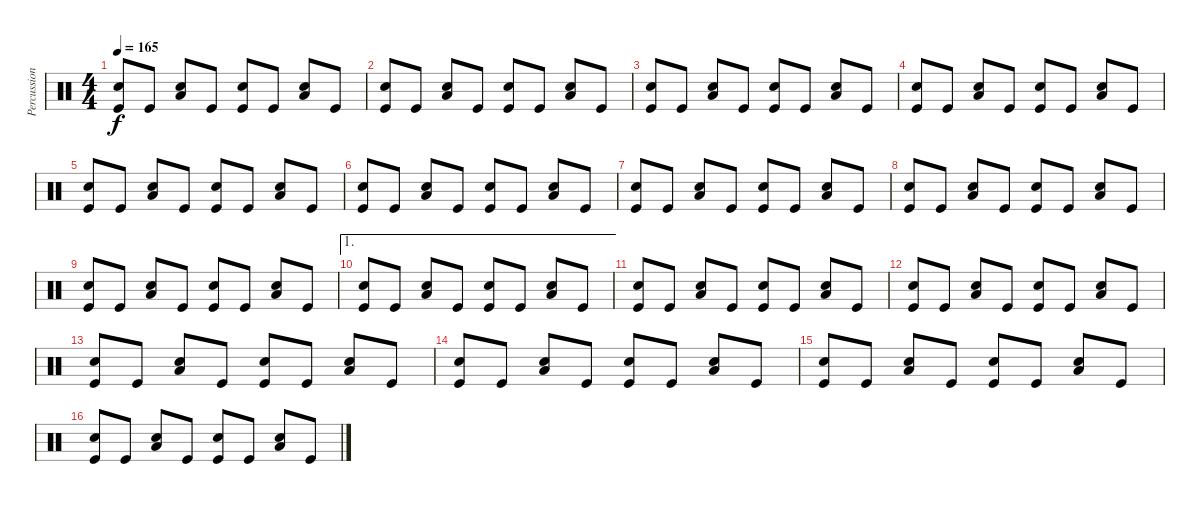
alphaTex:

\track ("Percussions" "Percussion") {instrument percussion}
\staff {score}
\articulation defaults
\ts (4 4)
\tempo 165
\clef neutral
\ks c
("Snare (hit) 2" "Kick (hit)").8{dy f} "Kick (hit)".8 ("Snare (hit) 2" "Low Floor Tom (hit)").8 "Kick (hit)".8 ("Snare (hit) 2" "Kick (hit)").8 "Kick (hit)".8 ("Snare (hit) 2" "Low Floor Tom (hit)").8 "Kick (hit)".8 |
("Snare (hit) 2" "Kick (hit)").8 "Kick (hit)".8 ("Snare (hit) 2" "Low Floor Tom (hit)").8 "Kick (hit)".8 ("Snare (hit) 2" "Kick (hit)").8 "Kick (hit)".8 ("Snare (hit) 2" "Low Floor Tom (hit)").8 "Kick (hit)".8 |
("Snare (hit) 2" "Kick (hit)").8 "Kick (hit)".8 ("Snare (hit) 2" "Low Floor Tom (hit)").8 "Kick (hit)".8 ("Snare (hit) 2" "Kick (hit)").8 "Kick (hit)".8 ("Snare (hit) 2" "Low Floor Tom (hit)").8 "Kick (hit)".8 |
("Snare (hit) 2" "Kick (hit)").8 "Kick (hit)".8 ("Snare (hit) 2" "Low Floor Tom (hit)").8 "Kick (hit)".8 ("Snare (hit) 2" "Kick (hit)").8 "Kick (hit)".8 ("Snare (hit) 2" "Low Floor Tom (hit)").8 "Kick (hit)".8 |
("Snare (hit) 2" "Kick (hit)").8 "Kick (hit)".8 ("Snare (hit) 2" "Low Floor Tom (hit)").8 "Kick (hit)".8 ("Snare (hit) 2" "Kick (hit)").8 "Kick (hit)".8 ("Snare (hit) 2" "Low Floor Tom (hit)").8 "Kick (hit)".8 |
("Snare (hit) 2" "Kick (hit)").8 "Kick (hit)".8 ("Snare (hit) 2" "Low Floor Tom (hit)").8 "Kick (hit)".8 ("Snare (hit) 2" "Kick (hit)").8 "Kick (hit)".8 ("Snare (hit) 2" "Low Floor Tom (hit)").8 "Kick (hit)".8 |
("Snare (hit) 2" "Kick (hit)").8 "Kick (hit)".8 ("Snare (hit) 2" "Low Floor Tom (hit)").8 "Kick (hit)".8 ("Snare (hit) 2" "Kick (hit)").8 "Kick (hit)".8 ("Snare (hit) 2" "Low Floor Tom (hit)").8 "Kick (hit)".8 |
("Snare (hit) 2" "Kick (hit)").8 "Kick (hit)".8 ("Snare (hit) 2" "Low Floor Tom (hit)").8 "Kick (hit)".8 ("Snare (hit) 2" "Kick (hit)").8 "Kick (hit)".8 ("Snare (hit) 2" "Low Floor Tom (hit)").8 "Kick (hit)".8 |
("Snare (hit) 2" "Kick (hit)").8 "Kick (hit)".8 ("Snare (hit) 2" "Low Floor Tom (hit)").8 "Kick (hit)".8 ("Snare (hit) 2" "Kick (hit)").8 "Kick (hit)".8 ("Snare (hit) 2" "Low Floor Tom (hit)").8 "Kick (hit)".8 |
\ae 1
("Snare (hit) 2" "Kick (hit)").8 "Kick (hit)".8 ("Snare (hit) 2" "Low Floor Tom (hit)").8 "Kick (hit)".8 ("Snare (hit) 2" "Kick (hit)").8 "Kick (hit)".8 ("Snare (hit) 2" "Low Floor Tom (hit)").8 "Kick (hit)".8 |
("Snare (hit) 2" "Kick (hit)").8 "Kick (hit)".8 ("Snare (hit) 2" "Low Floor Tom (hit)").8 "Kick (hit)".8 ("Snare (hit) 2" "Kick (hit)").8 "Kick (hit)".8 ("Snare (hit) 2" "Low Floor Tom (hit)").8 "Kick (hit)".8 |
("Snare (hit) 2" "Kick (hit)").8 "Kick (hit)".8 ("Snare (hit) 2" "Low Floor Tom (hit)").8 "Kick (hit)".8 ("Snare (hit) 2" "Kick (hit)").8 "Kick (hit)".8 ("Snare (hit) 2" "Low Floor Tom (hit)").8 "Kick (hit)".8 |
("Snare (hit) 2" "Kick (hit)").8 "Kick (hit)".8 ("Snare (hit) 2" "Low Floor Tom (hit)").8 "Kick (hit)".8 ("Snare (hit) 2" "Kick (hit)").8 "Kick (hit)".8 ("Snare (hit) 2" "Low Floor Tom (hit)").8 "Kick (hit)".8 |
("Snare (hit) 2" "Kick (hit)").8 "Kick (hit)".8 ("Snare (hit) 2" "Low Floor Tom (hit)").8 "Kick (hit)".8 ("Snare (hit) 2" "Kick (hit)").8 "Kick (hit)".8 ("Snare (hit) 2" "Low Floor Tom (hit)").8 "Kick (hit)".8 |
("Snare (hit) 2" "Kick (hit)").8 "Kick (hit)".8 ("Snare (hit) 2" "Low Floor Tom (hit)").8 "Kick (hit)".8 ("Snare (hit) 2" "Kick (hit)").8 "Kick (hit)".8 ("Snare (hit) 2" "Low Floor Tom (hit)").8 "Kick (hit)".8 |
("Snare (hit) 2" "Kick (hit)").8 "Kick (hit)".8 ("Snare (hit) 2" "Low Floor Tom (hit)").8 "Kick (hit)".8 ("Snare (hit) 2" "Kick (hit)").8 "Kick (hit)".8 ("Snare (hit) 2" "Low Floor Tom (hit)").8 "Kick (hit)".8
